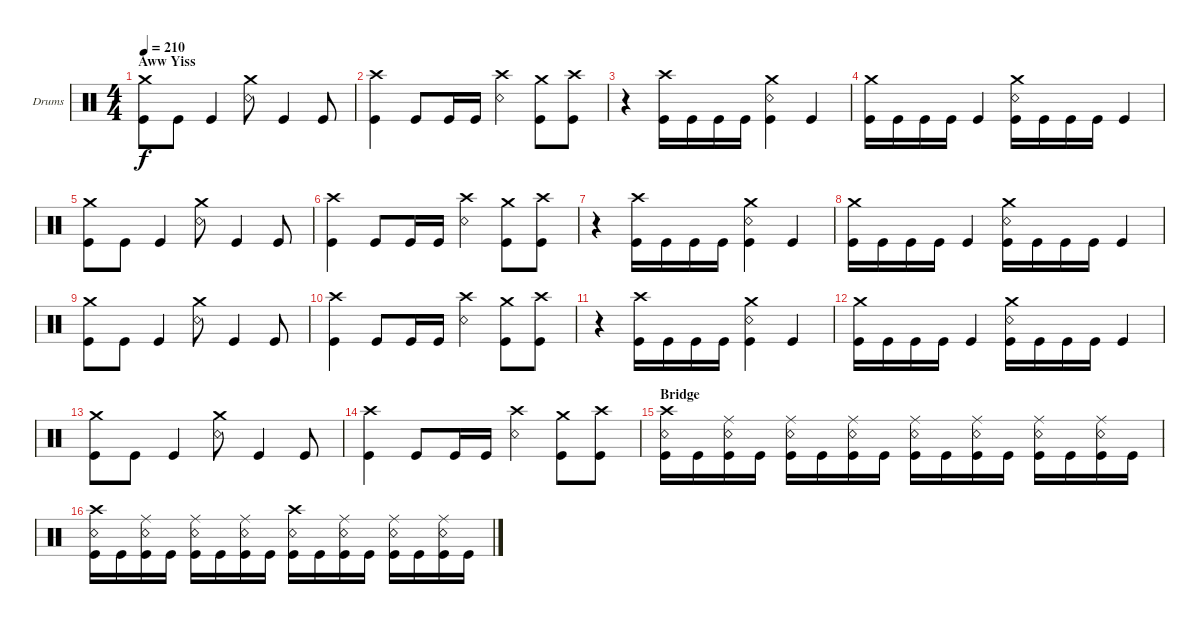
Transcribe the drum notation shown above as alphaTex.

\defaultSystemsLayout 4
\bracketExtendMode groupsimilarinstruments
\firstSystemTrackNameOrientation horizontal
\otherSystemsTrackNameOrientation horizontal
\track ("Drums" "Drums") {instrument percussion}
\staff {score}
\articulation defaults
\ts (4 4)
\section ("" "Aww Yiss")
\tempo 210
\clef neutral
\ks c
("Crash medium (hit)" "Kick (hit)").8{dy f} "Kick (hit)".8 "Kick (hit)".4 ("Crash medium (hit)" "Snare (rim shot)").8 "Kick (hit)".4 "Kick (hit)".8 |
("Crash high (hit)" "Kick (hit)").4 "Kick (hit)".8 "Kick (hit)".16 "Kick (hit)".16 ("Crash high (hit)" "Snare (rim shot)").4 ("Crash medium (hit)" "Kick (hit)").8 ("Crash high (hit)" "Kick (hit)").8 |
r.4 ("Crash high (hit)" "Kick (hit)").16 "Kick (hit)".16 "Kick (hit)".16 "Kick (hit)".16 ("Crash medium (hit)" "Snare (rim shot)" "Kick (hit)").4 "Kick (hit)".4 |
("Crash medium (hit)" "Kick (hit)").16 "Kick (hit)".16 "Kick (hit)".16 "Kick (hit)".16 "Kick (hit)".4 ("Crash medium (hit)" "Snare (rim shot)" "Kick (hit)").16 "Kick (hit)".16 "Kick (hit)".16 "Kick (hit)".16 "Kick (hit)".4 |
("Crash medium (hit)" "Kick (hit)").8 "Kick (hit)".8 "Kick (hit)".4 ("Crash medium (hit)" "Snare (rim shot)").8 "Kick (hit)".4 "Kick (hit)".8 |
("Crash high (hit)" "Kick (hit)").4 "Kick (hit)".8 "Kick (hit)".16 "Kick (hit)".16 ("Crash high (hit)" "Snare (rim shot)").4 ("Crash medium (hit)" "Kick (hit)").8 ("Crash high (hit)" "Kick (hit)").8 |
r.4 ("Crash high (hit)" "Kick (hit)").16 "Kick (hit)".16 "Kick (hit)".16 "Kick (hit)".16 ("Crash medium (hit)" "Snare (rim shot)" "Kick (hit)").4 "Kick (hit)".4 |
("Crash medium (hit)" "Kick (hit)").16 "Kick (hit)".16 "Kick (hit)".16 "Kick (hit)".16 "Kick (hit)".4 ("Crash medium (hit)" "Snare (rim shot)" "Kick (hit)").16 "Kick (hit)".16 "Kick (hit)".16 "Kick (hit)".16 "Kick (hit)".4 |
("Crash medium (hit)" "Kick (hit)").8 "Kick (hit)".8 "Kick (hit)".4 ("Crash medium (hit)" "Snare (rim shot)").8 "Kick (hit)".4 "Kick (hit)".8 |
("Crash high (hit)" "Kick (hit)").4 "Kick (hit)".8 "Kick (hit)".16 "Kick (hit)".16 ("Crash high (hit)" "Snare (rim shot)").4 ("Crash medium (hit)" "Kick (hit)").8 ("Crash high (hit)" "Kick (hit)").8 |
r.4 ("Crash high (hit)" "Kick (hit)").16 "Kick (hit)".16 "Kick (hit)".16 "Kick (hit)".16 ("Crash medium (hit)" "Snare (rim shot)" "Kick (hit)").4 "Kick (hit)".4 |
("Crash medium (hit)" "Kick (hit)").16 "Kick (hit)".16 "Kick (hit)".16 "Kick (hit)".16 "Kick (hit)".4 ("Crash medium (hit)" "Snare (rim shot)" "Kick (hit)").16 "Kick (hit)".16 "Kick (hit)".16 "Kick (hit)".16 "Kick (hit)".4 |
("Crash medium (hit)" "Kick (hit)").8 "Kick (hit)".8 "Kick (hit)".4 ("Crash medium (hit)" "Snare (rim shot)").8 "Kick (hit)".4 "Kick (hit)".8 |
("Crash high (hit)" "Kick (hit)").4 "Kick (hit)".8 "Kick (hit)".16 "Kick (hit)".16 ("Crash high (hit)" "Snare (rim shot)").4 ("Crash medium (hit)" "Kick (hit)").8 ("Crash high (hit)" "Kick (hit)").8 |
\section ("" "Bridge")
("Kick (hit)" "Snare (rim shot)" "Crash high (hit)").16 "Kick (hit)".16 ("Kick (hit)" "Snare (rim shot)" "Ride (middle)").16 "Kick (hit)".16 ("Kick (hit)" "Snare (rim shot)" "Ride (middle)").16 "Kick (hit)".16 ("Kick (hit)" "Snare (rim shot)" "Ride (middle)").16 "Kick (hit)".16 ("Kick (hit)" "Snare (rim shot)" "Ride (middle)").16 "Kick (hit)".16 ("Kick (hit)" "Snare (rim shot)" "Ride (middle)").16 "Kick (hit)".16 ("Kick (hit)" "Snare (rim shot)" "Ride (middle)").16 "Kick (hit)".16 ("Kick (hit)" "Snare (rim shot)" "Ride (middle)").16 "Kick (hit)".16 |
("Kick (hit)" "Snare (rim shot)" "Crash high (hit)").16 "Kick (hit)".16 ("Kick (hit)" "Snare (rim shot)" "Ride (middle)").16 "Kick (hit)".16 ("Kick (hit)" "Snare (rim shot)" "Ride (middle)").16 "Kick (hit)".16 ("Kick (hit)" "Snare (rim shot)" "Ride (middle)").16 "Kick (hit)".16 ("Kick (hit)" "Snare (rim shot)" "Crash high (hit)").16 "Kick (hit)".16 ("Kick (hit)" "Snare (rim shot)" "Ride (middle)").16 "Kick (hit)".16 ("Kick (hit)" "Snare (rim shot)" "Ride (middle)").16 "Kick (hit)".16 ("Kick (hit)" "Snare (rim shot)" "Ride (middle)").16 "Kick (hit)".16
